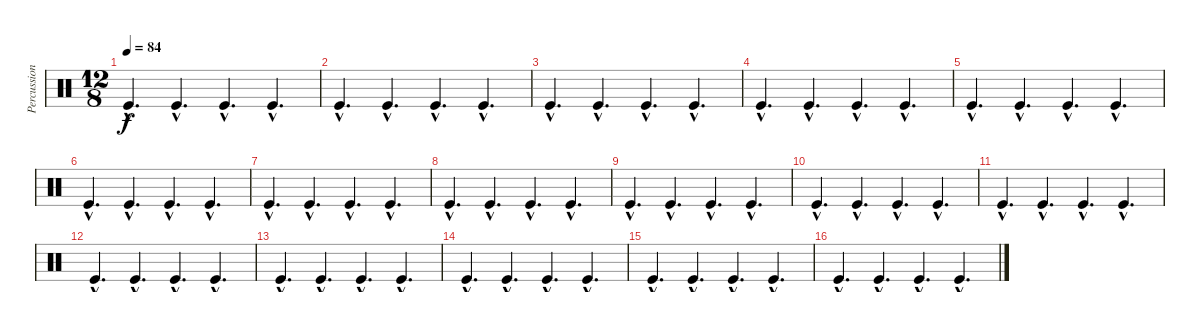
\track ("Percussion" "Percussion") {instrument percussion}
\staff {score}
\articulation defaults
\ts (12 8)
\tempo 84
\clef neutral
\ks c "Kick (hit)"{hac}.4{d dy f} "Kick (hit)"{hac}.4{d} "Kick (hit)"{hac}.4{d} "Kick (hit)"{hac}.4{d}
|
"Kick (hit)"{hac}.4{d} "Kick (hit)"{hac}.4{d} "Kick (hit)"{hac}.4{d} "Kick (hit)"{hac}.4{d} |
"Kick (hit)"{hac}.4{d} "Kick (hit)"{hac}.4{d} "Kick (hit)"{hac}.4{d} "Kick (hit)"{hac}.4{d} |
"Kick (hit)"{hac}.4{d} "Kick (hit)"{hac}.4{d} "Kick (hit)"{hac}.4{d} "Kick (hit)"{hac}.4{d} |
"Kick (hit)"{hac}.4{d} "Kick (hit)"{hac}.4{d} "Kick (hit)"{hac}.4{d} "Kick (hit)"{hac}.4{d} |
"Kick (hit)"{hac}.4{d} "Kick (hit)"{hac}.4{d} "Kick (hit)"{hac}.4{d} "Kick (hit)"{hac}.4{d} |
"Kick (hit)"{hac}.4{d} "Kick (hit)"{hac}.4{d} "Kick (hit)"{hac}.4{d} "Kick (hit)"{hac}.4{d} |
"Kick (hit)"{hac}.4{d} "Kick (hit)"{hac}.4{d} "Kick (hit)"{hac}.4{d} "Kick (hit)"{hac}.4{d} |
"Kick (hit)"{hac}.4{d} "Kick (hit)"{hac}.4{d} "Kick (hit)"{hac}.4{d} "Kick (hit)"{hac}.4{d} |
"Kick (hit)"{hac}.4{d} "Kick (hit)"{hac}.4{d} "Kick (hit)"{hac}.4{d} "Kick (hit)"{hac}.4{d} |
"Kick (hit)"{hac}.4{d} "Kick (hit)"{hac}.4{d} "Kick (hit)"{hac}.4{d} "Kick (hit)"{hac}.4{d} |
"Kick (hit)"{hac}.4{d} "Kick (hit)"{hac}.4{d} "Kick (hit)"{hac}.4{d} "Kick (hit)"{hac}.4{d} |
"Kick (hit)"{hac}.4{d} "Kick (hit)"{hac}.4{d} "Kick (hit)"{hac}.4{d} "Kick (hit)"{hac}.4{d} |
"Kick (hit)"{hac}.4{d} "Kick (hit)"{hac}.4{d} "Kick (hit)"{hac}.4{d} "Kick (hit)"{hac}.4{d} |
"Kick (hit)"{hac}.4{d} "Kick (hit)"{hac}.4{d} "Kick (hit)"{hac}.4{d} "Kick (hit)"{hac}.4{d} |
"Kick (hit)"{hac}.4{d} "Kick (hit)"{hac}.4{d} "Kick (hit)"{hac}.4{d} "Kick (hit)"{hac}.4{d}
